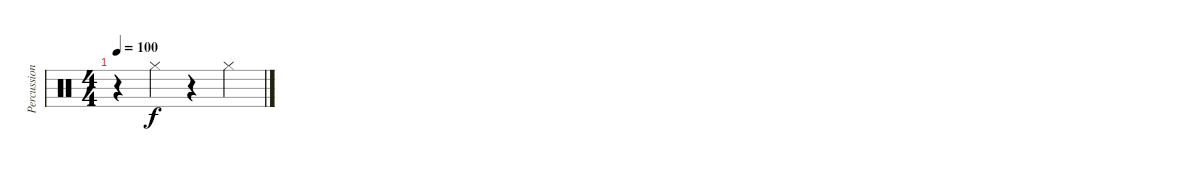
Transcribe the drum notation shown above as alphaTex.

\track ("Percussion" "Percussion") {instrument percussion}
\staff {score}
\articulation defaults
\ts (4 4)
\tempo 100
\clef neutral
\ks c
r.4{dy f} "Hi-Hat (closed)".4 r.4 "Hi-Hat (closed)".4
